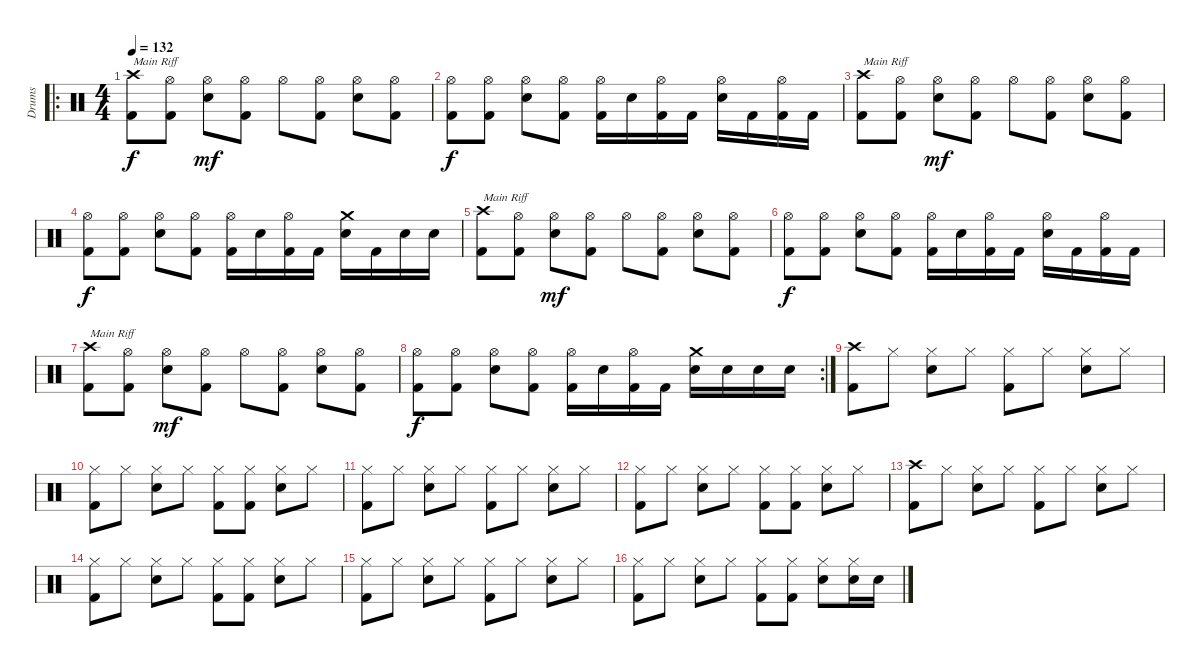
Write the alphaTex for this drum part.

\track ("Drums" "Drums") {instrument percussion}
\staff {score}
\articulation defaults
\ro
\ts (4 4)
\tempo 132
\clef neutral
\ks c
("Crash high (hit)" "Kick (hit) 2").8{txt "Main Riff" dy f} ("Hi-Hat (open)" "Kick (hit) 2").8 ("Hi-Hat (open)" "Snare (hit) 2").8{dy mf} ("Hi-Hat (open)" "Kick (hit) 2").8 "Hi-Hat (open)".8 ("Hi-Hat (open)" "Kick (hit) 2").8 ("Hi-Hat (open)" "Snare (hit) 2").8 ("Hi-Hat (open)" "Kick (hit) 2").8 |
("Hi-Hat (open)" "Kick (hit) 2").8{dy f} ("Hi-Hat (open)" "Kick (hit) 2").8 ("Hi-Hat (open)" "Snare (hit) 2").8 ("Hi-Hat (open)" "Kick (hit) 2").8 ("Hi-Hat (open)" "Kick (hit) 2").16 "Snare (hit) 2".16 ("Hi-Hat (open)" "Kick (hit) 2").16 "Kick (hit) 2".16 ("Hi-Hat (open)" "Snare (hit) 2").16 "Kick (hit) 2".16 ("Hi-Hat (open)" "Kick (hit) 2").16 "Kick (hit) 2".16 |
("Crash high (hit)" "Kick (hit) 2").8{txt "Main Riff"} ("Hi-Hat (open)" "Kick (hit) 2").8 ("Hi-Hat (open)" "Snare (hit) 2").8{dy mf} ("Hi-Hat (open)" "Kick (hit) 2").8 "Hi-Hat (open)".8 ("Hi-Hat (open)" "Kick (hit) 2").8 ("Hi-Hat (open)" "Snare (hit) 2").8 ("Hi-Hat (open)" "Kick (hit) 2").8 |
("Hi-Hat (open)" "Kick (hit) 2").8{dy f} ("Hi-Hat (open)" "Kick (hit) 2").8 ("Hi-Hat (open)" "Snare (hit) 2").8 ("Hi-Hat (open)" "Kick (hit) 2").8 ("Hi-Hat (open)" "Kick (hit) 2").16 "Snare (hit) 2".16 ("Hi-Hat (open)" "Kick (hit) 2").16 "Kick (hit) 2".16 ("Crash medium (hit)" "Snare (hit) 2").16 "Kick (hit) 2".16 "Snare (hit) 2".16 "Snare (hit) 2".16 |
("Crash high (hit)" "Kick (hit) 2").8{txt "Main Riff"} ("Hi-Hat (open)" "Kick (hit) 2").8 ("Hi-Hat (open)" "Snare (hit) 2").8{dy mf} ("Hi-Hat (open)" "Kick (hit) 2").8 "Hi-Hat (open)".8 ("Hi-Hat (open)" "Kick (hit) 2").8 ("Hi-Hat (open)" "Snare (hit) 2").8 ("Hi-Hat (open)" "Kick (hit) 2").8 |
("Hi-Hat (open)" "Kick (hit) 2").8{dy f} ("Hi-Hat (open)" "Kick (hit) 2").8 ("Hi-Hat (open)" "Snare (hit) 2").8 ("Hi-Hat (open)" "Kick (hit) 2").8 ("Hi-Hat (open)" "Kick (hit) 2").16 "Snare (hit) 2".16 ("Hi-Hat (open)" "Kick (hit) 2").16 "Kick (hit) 2".16 ("Hi-Hat (open)" "Snare (hit) 2").16 "Kick (hit) 2".16 ("Hi-Hat (open)" "Kick (hit) 2").16 "Kick (hit) 2".16 |
("Crash high (hit)" "Kick (hit) 2").8{txt "Main Riff"} ("Hi-Hat (open)" "Kick (hit) 2").8 ("Hi-Hat (open)" "Snare (hit) 2").8{dy mf} ("Hi-Hat (open)" "Kick (hit) 2").8 "Hi-Hat (open)".8 ("Hi-Hat (open)" "Kick (hit) 2").8 ("Hi-Hat (open)" "Snare (hit) 2").8 ("Hi-Hat (open)" "Kick (hit) 2").8 |
\rc 2
("Hi-Hat (open)" "Kick (hit) 2").8{dy f} ("Hi-Hat (open)" "Kick (hit) 2").8 ("Hi-Hat (open)" "Snare (hit) 2").8 ("Hi-Hat (open)" "Kick (hit) 2").8 ("Hi-Hat (open)" "Kick (hit) 2").16 "Snare (hit) 2".16 ("Hi-Hat (open)" "Kick (hit) 2").16 "Kick (hit) 2".16 ("Crash medium (hit)" "Snare (hit) 2").16 "Snare (hit) 2".16 "Snare (hit) 2".16 "Snare (hit) 2".16 |
("Crash high (hit)" "Kick (hit) 2").8 "Hi-Hat (closed)".8 ("Hi-Hat (closed)" "Snare (hit) 2").8 "Hi-Hat (closed)".8 ("Hi-Hat (closed)" "Kick (hit) 2").8 "Hi-Hat (closed)".8 ("Hi-Hat (closed)" "Snare (hit) 2").8 "Hi-Hat (closed)".8 |
("Hi-Hat (closed)" "Kick (hit) 2").8 "Hi-Hat (closed)".8 ("Hi-Hat (closed)" "Snare (hit) 2").8 "Hi-Hat (closed)".8 ("Hi-Hat (closed)" "Kick (hit) 2").8 ("Hi-Hat (closed)" "Kick (hit) 2").8 ("Hi-Hat (closed)" "Snare (hit) 2").8 "Hi-Hat (closed)".8 |
("Hi-Hat (closed)" "Kick (hit) 2").8 "Hi-Hat (closed)".8 ("Hi-Hat (closed)" "Snare (hit) 2").8 "Hi-Hat (closed)".8 ("Hi-Hat (closed)" "Kick (hit) 2").8 "Hi-Hat (closed)".8 ("Hi-Hat (closed)" "Snare (hit) 2").8 "Hi-Hat (closed)".8 |
("Hi-Hat (closed)" "Kick (hit) 2").8 "Hi-Hat (closed)".8 ("Hi-Hat (closed)" "Snare (hit) 2").8 "Hi-Hat (closed)".8 ("Hi-Hat (closed)" "Kick (hit) 2").8 ("Hi-Hat (closed)" "Kick (hit) 2").8 ("Hi-Hat (closed)" "Snare (hit) 2").8 "Hi-Hat (closed)".8 |
("Crash high (hit)" "Kick (hit) 2").8 "Hi-Hat (closed)".8 ("Hi-Hat (closed)" "Snare (hit) 2").8 "Hi-Hat (closed)".8 ("Hi-Hat (closed)" "Kick (hit) 2").8 "Hi-Hat (closed)".8 ("Hi-Hat (closed)" "Snare (hit) 2").8 "Hi-Hat (closed)".8 |
("Hi-Hat (closed)" "Kick (hit) 2").8 "Hi-Hat (closed)".8 ("Hi-Hat (closed)" "Snare (hit) 2").8 "Hi-Hat (closed)".8 ("Hi-Hat (closed)" "Kick (hit) 2").8 ("Hi-Hat (closed)" "Kick (hit) 2").8 ("Hi-Hat (closed)" "Snare (hit) 2").8 "Hi-Hat (closed)".8 |
("Hi-Hat (closed)" "Kick (hit) 2").8 "Hi-Hat (closed)".8 ("Hi-Hat (closed)" "Snare (hit) 2").8 "Hi-Hat (closed)".8 ("Hi-Hat (closed)" "Kick (hit) 2").8 "Hi-Hat (closed)".8 ("Hi-Hat (closed)" "Snare (hit) 2").8 "Hi-Hat (closed)".8 |
("Hi-Hat (closed)" "Kick (hit) 2").8 "Hi-Hat (closed)".8 ("Hi-Hat (closed)" "Snare (hit) 2").8 "Hi-Hat (closed)".8 ("Hi-Hat (closed)" "Kick (hit) 2").8 ("Hi-Hat (closed)" "Kick (hit) 2").8 ("Hi-Hat (closed)" "Snare (hit) 2").8 ("Hi-Hat (closed)" "Snare (hit) 2").16 "Snare (hit) 2".16
